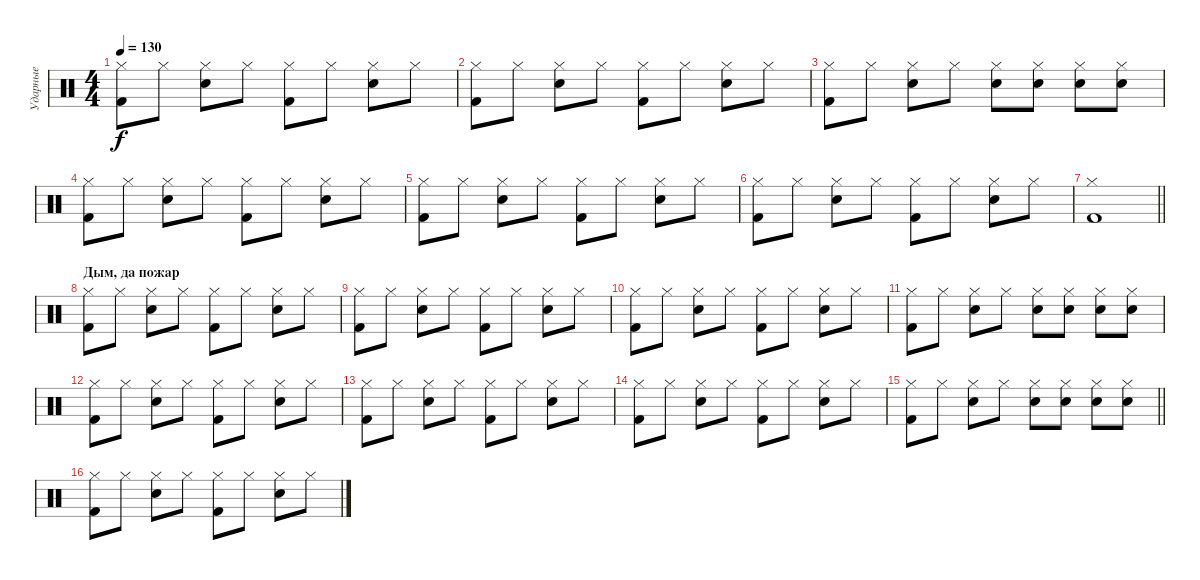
\track ("Ударные" "Ударные") {instrument percussion}
\staff {score}
\articulation defaults
\ts (4 4)
\tempo 130
\clef neutral
\ks c
("Hi-Hat (closed)" "Kick (hit) 2").8{dy f} "Hi-Hat (closed)".8 ("Hi-Hat (closed)" "Snare (hit) 2").8 "Hi-Hat (closed)".8 ("Hi-Hat (closed)" "Kick (hit) 2").8 "Hi-Hat (closed)".8 ("Hi-Hat (closed)" "Snare (hit) 2").8 "Hi-Hat (closed)".8 |
("Hi-Hat (closed)" "Kick (hit) 2").8 "Hi-Hat (closed)".8 ("Hi-Hat (closed)" "Snare (hit) 2").8 "Hi-Hat (closed)".8 ("Hi-Hat (closed)" "Kick (hit) 2").8 "Hi-Hat (closed)".8 ("Hi-Hat (closed)" "Snare (hit) 2").8 "Hi-Hat (closed)".8 |
("Hi-Hat (closed)" "Kick (hit) 2").8 "Hi-Hat (closed)".8 ("Hi-Hat (closed)" "Snare (hit) 2").8 "Hi-Hat (closed)".8 ("Hi-Hat (closed)" "Snare (hit) 2").8 ("Hi-Hat (closed)" "Snare (hit) 2").8 ("Hi-Hat (closed)" "Snare (hit) 2").8 ("Hi-Hat (closed)" "Snare (hit) 2").8 |
("Hi-Hat (closed)" "Kick (hit) 2").8 "Hi-Hat (closed)".8 ("Hi-Hat (closed)" "Snare (hit) 2").8 "Hi-Hat (closed)".8 ("Hi-Hat (closed)" "Kick (hit) 2").8 "Hi-Hat (closed)".8 ("Hi-Hat (closed)" "Snare (hit) 2").8 "Hi-Hat (closed)".8 |
("Hi-Hat (closed)" "Kick (hit) 2").8 "Hi-Hat (closed)".8 ("Hi-Hat (closed)" "Snare (hit) 2").8 "Hi-Hat (closed)".8 ("Hi-Hat (closed)" "Kick (hit) 2").8 "Hi-Hat (closed)".8 ("Hi-Hat (closed)" "Snare (hit) 2").8 "Hi-Hat (closed)".8 |
("Hi-Hat (closed)" "Kick (hit) 2").8 "Hi-Hat (closed)".8 ("Hi-Hat (closed)" "Snare (hit) 2").8 "Hi-Hat (closed)".8 ("Hi-Hat (closed)" "Kick (hit) 2").8 "Hi-Hat (closed)".8 ("Hi-Hat (closed)" "Snare (hit) 2").8 "Hi-Hat (closed)".8 |
\barLineRight lightlight
("Hi-Hat (closed)" "Kick (hit) 2").1 |
\section ("" "Дым, да пожар")
("Hi-Hat (closed)" "Kick (hit) 2").8 "Hi-Hat (closed)".8 ("Hi-Hat (closed)" "Snare (hit) 2").8 "Hi-Hat (closed)".8 ("Hi-Hat (closed)" "Kick (hit) 2").8 "Hi-Hat (closed)".8 ("Hi-Hat (closed)" "Snare (hit) 2").8 "Hi-Hat (closed)".8 |
("Hi-Hat (closed)" "Kick (hit) 2").8 "Hi-Hat (closed)".8 ("Hi-Hat (closed)" "Snare (hit) 2").8 "Hi-Hat (closed)".8 ("Hi-Hat (closed)" "Kick (hit) 2").8 "Hi-Hat (closed)".8 ("Hi-Hat (closed)" "Snare (hit) 2").8 "Hi-Hat (closed)".8 |
("Hi-Hat (closed)" "Kick (hit) 2").8 "Hi-Hat (closed)".8 ("Hi-Hat (closed)" "Snare (hit) 2").8 "Hi-Hat (closed)".8 ("Hi-Hat (closed)" "Kick (hit) 2").8 "Hi-Hat (closed)".8 ("Hi-Hat (closed)" "Snare (hit) 2").8 "Hi-Hat (closed)".8 |
("Hi-Hat (closed)" "Kick (hit) 2").8 "Hi-Hat (closed)".8 ("Hi-Hat (closed)" "Snare (hit) 2").8 "Hi-Hat (closed)".8 ("Hi-Hat (closed)" "Snare (hit) 2").8 ("Hi-Hat (closed)" "Snare (hit) 2").8 ("Hi-Hat (closed)" "Snare (hit) 2").8 ("Hi-Hat (closed)" "Snare (hit) 2").8 |
("Hi-Hat (closed)" "Kick (hit) 2").8 "Hi-Hat (closed)".8 ("Hi-Hat (closed)" "Snare (hit) 2").8 "Hi-Hat (closed)".8 ("Hi-Hat (closed)" "Kick (hit) 2").8 "Hi-Hat (closed)".8 ("Hi-Hat (closed)" "Snare (hit) 2").8 "Hi-Hat (closed)".8 |
("Hi-Hat (closed)" "Kick (hit) 2").8 "Hi-Hat (closed)".8 ("Hi-Hat (closed)" "Snare (hit) 2").8 "Hi-Hat (closed)".8 ("Hi-Hat (closed)" "Kick (hit) 2").8 "Hi-Hat (closed)".8 ("Hi-Hat (closed)" "Snare (hit) 2").8 "Hi-Hat (closed)".8 |
("Hi-Hat (closed)" "Kick (hit) 2").8 "Hi-Hat (closed)".8 ("Hi-Hat (closed)" "Snare (hit) 2").8 "Hi-Hat (closed)".8 ("Hi-Hat (closed)" "Kick (hit) 2").8 "Hi-Hat (closed)".8 ("Hi-Hat (closed)" "Snare (hit) 2").8 "Hi-Hat (closed)".8 |
\barLineRight lightlight
("Hi-Hat (closed)" "Kick (hit) 2").8 "Hi-Hat (closed)".8 ("Hi-Hat (closed)" "Snare (hit) 2").8 "Hi-Hat (closed)".8 ("Hi-Hat (closed)" "Snare (hit) 2").8 ("Hi-Hat (closed)" "Snare (hit) 2").8 ("Hi-Hat (closed)" "Snare (hit) 2").8 ("Hi-Hat (closed)" "Snare (hit) 2").8 |
("Hi-Hat (closed)" "Kick (hit) 2").8 "Hi-Hat (closed)".8 ("Hi-Hat (closed)" "Snare (hit) 2").8 "Hi-Hat (closed)".8 ("Hi-Hat (closed)" "Kick (hit) 2").8 "Hi-Hat (closed)".8 ("Hi-Hat (closed)" "Snare (hit) 2").8 "Hi-Hat (closed)".8
